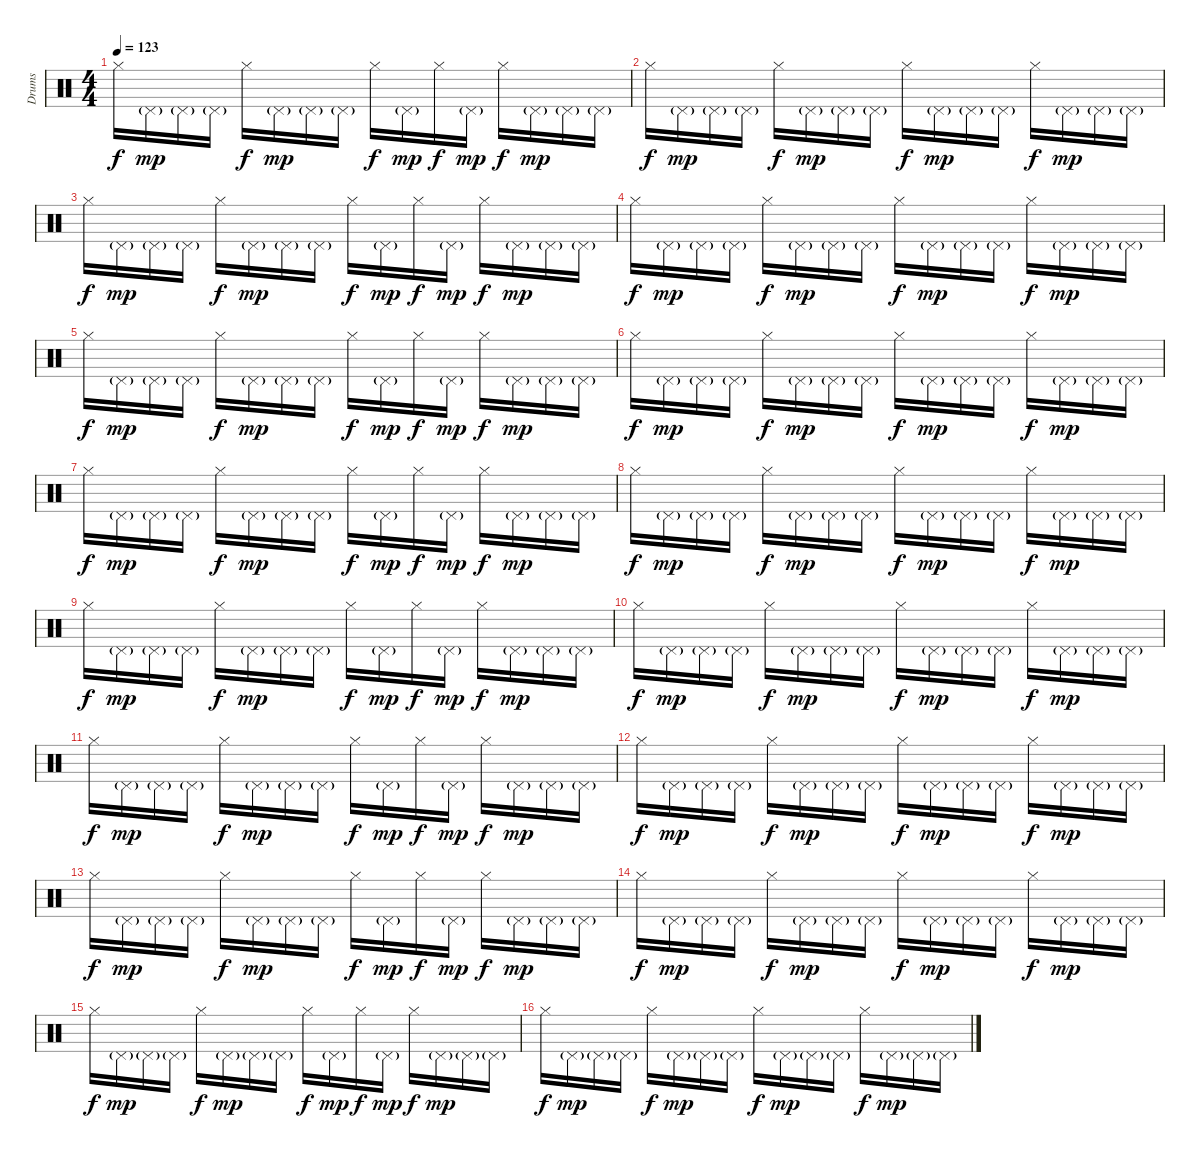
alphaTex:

\track ("Drums" "Drums") {instrument percussion}
\staff {score}
\articulation defaults
\ts (4 4)
\tempo 123
\clef neutral
\ks c "Hi-Hat (closed)".16{dy f volume 8} "Pedal Hi-Hat (hit)"{g}.16{dy mp} "Pedal Hi-Hat (hit)"{g}.16 "Pedal Hi-Hat (hit)"{g}.16 "Hi-Hat (closed)".16{dy f} "Pedal Hi-Hat (hit)"{g}.16{dy mp} "Pedal Hi-Hat (hit)"{g}.16 "Pedal Hi-Hat (hit)"{g}.16 "Hi-Hat (closed)".16{dy f} "Pedal Hi-Hat (hit)"{g}.16{dy mp} "Hi-Hat (closed)".16{dy f} "Pedal Hi-Hat (hit)"{g}.16{dy mp} "Hi-Hat (closed)".16{dy f} "Pedal Hi-Hat (hit)"{g}.16{dy mp} "Pedal Hi-Hat (hit)"{g}.16 "Pedal Hi-Hat (hit)"{g}.16
|
"Hi-Hat (closed)".16{dy f} "Pedal Hi-Hat (hit)"{g}.16{dy mp} "Pedal Hi-Hat (hit)"{g}.16 "Pedal Hi-Hat (hit)"{g}.16 "Hi-Hat (closed)".16{dy f} "Pedal Hi-Hat (hit)"{g}.16{dy mp} "Pedal Hi-Hat (hit)"{g}.16 "Pedal Hi-Hat (hit)"{g}.16 "Hi-Hat (closed)".16{dy f} "Pedal Hi-Hat (hit)"{g}.16{dy mp} "Pedal Hi-Hat (hit)"{g}.16 "Pedal Hi-Hat (hit)"{g}.16 "Hi-Hat (closed)".16{dy f} "Pedal Hi-Hat (hit)"{g}.16{dy mp} "Pedal Hi-Hat (hit)"{g}.16 "Pedal Hi-Hat (hit)"{g}.16 |
"Hi-Hat (closed)".16{dy f} "Pedal Hi-Hat (hit)"{g}.16{dy mp} "Pedal Hi-Hat (hit)"{g}.16 "Pedal Hi-Hat (hit)"{g}.16 "Hi-Hat (closed)".16{dy f} "Pedal Hi-Hat (hit)"{g}.16{dy mp} "Pedal Hi-Hat (hit)"{g}.16 "Pedal Hi-Hat (hit)"{g}.16 "Hi-Hat (closed)".16{dy f} "Pedal Hi-Hat (hit)"{g}.16{dy mp} "Hi-Hat (closed)".16{dy f} "Pedal Hi-Hat (hit)"{g}.16{dy mp} "Hi-Hat (closed)".16{dy f} "Pedal Hi-Hat (hit)"{g}.16{dy mp} "Pedal Hi-Hat (hit)"{g}.16 "Pedal Hi-Hat (hit)"{g}.16 |
"Hi-Hat (closed)".16{dy f} "Pedal Hi-Hat (hit)"{g}.16{dy mp} "Pedal Hi-Hat (hit)"{g}.16 "Pedal Hi-Hat (hit)"{g}.16 "Hi-Hat (closed)".16{dy f} "Pedal Hi-Hat (hit)"{g}.16{dy mp} "Pedal Hi-Hat (hit)"{g}.16 "Pedal Hi-Hat (hit)"{g}.16 "Hi-Hat (closed)".16{dy f} "Pedal Hi-Hat (hit)"{g}.16{dy mp} "Pedal Hi-Hat (hit)"{g}.16 "Pedal Hi-Hat (hit)"{g}.16 "Hi-Hat (closed)".16{dy f} "Pedal Hi-Hat (hit)"{g}.16{dy mp} "Pedal Hi-Hat (hit)"{g}.16 "Pedal Hi-Hat (hit)"{g}.16 |
"Hi-Hat (closed)".16{dy f} "Pedal Hi-Hat (hit)"{g}.16{dy mp} "Pedal Hi-Hat (hit)"{g}.16 "Pedal Hi-Hat (hit)"{g}.16 "Hi-Hat (closed)".16{dy f} "Pedal Hi-Hat (hit)"{g}.16{dy mp} "Pedal Hi-Hat (hit)"{g}.16 "Pedal Hi-Hat (hit)"{g}.16 "Hi-Hat (closed)".16{dy f} "Pedal Hi-Hat (hit)"{g}.16{dy mp} "Hi-Hat (closed)".16{dy f} "Pedal Hi-Hat (hit)"{g}.16{dy mp} "Hi-Hat (closed)".16{dy f} "Pedal Hi-Hat (hit)"{g}.16{dy mp} "Pedal Hi-Hat (hit)"{g}.16 "Pedal Hi-Hat (hit)"{g}.16 |
"Hi-Hat (closed)".16{dy f} "Pedal Hi-Hat (hit)"{g}.16{dy mp} "Pedal Hi-Hat (hit)"{g}.16 "Pedal Hi-Hat (hit)"{g}.16 "Hi-Hat (closed)".16{dy f} "Pedal Hi-Hat (hit)"{g}.16{dy mp} "Pedal Hi-Hat (hit)"{g}.16 "Pedal Hi-Hat (hit)"{g}.16 "Hi-Hat (closed)".16{dy f} "Pedal Hi-Hat (hit)"{g}.16{dy mp} "Pedal Hi-Hat (hit)"{g}.16 "Pedal Hi-Hat (hit)"{g}.16 "Hi-Hat (closed)".16{dy f} "Pedal Hi-Hat (hit)"{g}.16{dy mp} "Pedal Hi-Hat (hit)"{g}.16 "Pedal Hi-Hat (hit)"{g}.16 |
"Hi-Hat (closed)".16{dy f} "Pedal Hi-Hat (hit)"{g}.16{dy mp} "Pedal Hi-Hat (hit)"{g}.16 "Pedal Hi-Hat (hit)"{g}.16 "Hi-Hat (closed)".16{dy f} "Pedal Hi-Hat (hit)"{g}.16{dy mp} "Pedal Hi-Hat (hit)"{g}.16 "Pedal Hi-Hat (hit)"{g}.16 "Hi-Hat (closed)".16{dy f} "Pedal Hi-Hat (hit)"{g}.16{dy mp} "Hi-Hat (closed)".16{dy f} "Pedal Hi-Hat (hit)"{g}.16{dy mp} "Hi-Hat (closed)".16{dy f} "Pedal Hi-Hat (hit)"{g}.16{dy mp} "Pedal Hi-Hat (hit)"{g}.16 "Pedal Hi-Hat (hit)"{g}.16 |
"Hi-Hat (closed)".16{dy f} "Pedal Hi-Hat (hit)"{g}.16{dy mp} "Pedal Hi-Hat (hit)"{g}.16 "Pedal Hi-Hat (hit)"{g}.16 "Hi-Hat (closed)".16{dy f} "Pedal Hi-Hat (hit)"{g}.16{dy mp} "Pedal Hi-Hat (hit)"{g}.16 "Pedal Hi-Hat (hit)"{g}.16 "Hi-Hat (closed)".16{dy f} "Pedal Hi-Hat (hit)"{g}.16{dy mp} "Pedal Hi-Hat (hit)"{g}.16 "Pedal Hi-Hat (hit)"{g}.16 "Hi-Hat (closed)".16{dy f} "Pedal Hi-Hat (hit)"{g}.16{dy mp} "Pedal Hi-Hat (hit)"{g}.16 "Pedal Hi-Hat (hit)"{g}.16 |
"Hi-Hat (closed)".16{dy f} "Pedal Hi-Hat (hit)"{g}.16{dy mp} "Pedal Hi-Hat (hit)"{g}.16 "Pedal Hi-Hat (hit)"{g}.16 "Hi-Hat (closed)".16{dy f} "Pedal Hi-Hat (hit)"{g}.16{dy mp} "Pedal Hi-Hat (hit)"{g}.16 "Pedal Hi-Hat (hit)"{g}.16 "Hi-Hat (closed)".16{dy f} "Pedal Hi-Hat (hit)"{g}.16{dy mp} "Hi-Hat (closed)".16{dy f} "Pedal Hi-Hat (hit)"{g}.16{dy mp} "Hi-Hat (closed)".16{dy f} "Pedal Hi-Hat (hit)"{g}.16{dy mp} "Pedal Hi-Hat (hit)"{g}.16 "Pedal Hi-Hat (hit)"{g}.16 |
"Hi-Hat (closed)".16{dy f} "Pedal Hi-Hat (hit)"{g}.16{dy mp} "Pedal Hi-Hat (hit)"{g}.16 "Pedal Hi-Hat (hit)"{g}.16 "Hi-Hat (closed)".16{dy f} "Pedal Hi-Hat (hit)"{g}.16{dy mp} "Pedal Hi-Hat (hit)"{g}.16 "Pedal Hi-Hat (hit)"{g}.16 "Hi-Hat (closed)".16{dy f} "Pedal Hi-Hat (hit)"{g}.16{dy mp} "Pedal Hi-Hat (hit)"{g}.16 "Pedal Hi-Hat (hit)"{g}.16 "Hi-Hat (closed)".16{dy f} "Pedal Hi-Hat (hit)"{g}.16{dy mp} "Pedal Hi-Hat (hit)"{g}.16 "Pedal Hi-Hat (hit)"{g}.16 |
"Hi-Hat (closed)".16{dy f} "Pedal Hi-Hat (hit)"{g}.16{dy mp} "Pedal Hi-Hat (hit)"{g}.16 "Pedal Hi-Hat (hit)"{g}.16 "Hi-Hat (closed)".16{dy f} "Pedal Hi-Hat (hit)"{g}.16{dy mp} "Pedal Hi-Hat (hit)"{g}.16 "Pedal Hi-Hat (hit)"{g}.16 "Hi-Hat (closed)".16{dy f} "Pedal Hi-Hat (hit)"{g}.16{dy mp} "Hi-Hat (closed)".16{dy f} "Pedal Hi-Hat (hit)"{g}.16{dy mp} "Hi-Hat (closed)".16{dy f} "Pedal Hi-Hat (hit)"{g}.16{dy mp} "Pedal Hi-Hat (hit)"{g}.16 "Pedal Hi-Hat (hit)"{g}.16 |
"Hi-Hat (closed)".16{dy f} "Pedal Hi-Hat (hit)"{g}.16{dy mp} "Pedal Hi-Hat (hit)"{g}.16 "Pedal Hi-Hat (hit)"{g}.16 "Hi-Hat (closed)".16{dy f} "Pedal Hi-Hat (hit)"{g}.16{dy mp} "Pedal Hi-Hat (hit)"{g}.16 "Pedal Hi-Hat (hit)"{g}.16 "Hi-Hat (closed)".16{dy f} "Pedal Hi-Hat (hit)"{g}.16{dy mp} "Pedal Hi-Hat (hit)"{g}.16 "Pedal Hi-Hat (hit)"{g}.16 "Hi-Hat (closed)".16{dy f} "Pedal Hi-Hat (hit)"{g}.16{dy mp} "Pedal Hi-Hat (hit)"{g}.16 "Pedal Hi-Hat (hit)"{g}.16 |
"Hi-Hat (closed)".16{dy f} "Pedal Hi-Hat (hit)"{g}.16{dy mp} "Pedal Hi-Hat (hit)"{g}.16 "Pedal Hi-Hat (hit)"{g}.16 "Hi-Hat (closed)".16{dy f} "Pedal Hi-Hat (hit)"{g}.16{dy mp} "Pedal Hi-Hat (hit)"{g}.16 "Pedal Hi-Hat (hit)"{g}.16 "Hi-Hat (closed)".16{dy f} "Pedal Hi-Hat (hit)"{g}.16{dy mp} "Hi-Hat (closed)".16{dy f} "Pedal Hi-Hat (hit)"{g}.16{dy mp} "Hi-Hat (closed)".16{dy f} "Pedal Hi-Hat (hit)"{g}.16{dy mp} "Pedal Hi-Hat (hit)"{g}.16 "Pedal Hi-Hat (hit)"{g}.16 |
"Hi-Hat (closed)".16{dy f} "Pedal Hi-Hat (hit)"{g}.16{dy mp} "Pedal Hi-Hat (hit)"{g}.16 "Pedal Hi-Hat (hit)"{g}.16 "Hi-Hat (closed)".16{dy f} "Pedal Hi-Hat (hit)"{g}.16{dy mp} "Pedal Hi-Hat (hit)"{g}.16 "Pedal Hi-Hat (hit)"{g}.16 "Hi-Hat (closed)".16{dy f} "Pedal Hi-Hat (hit)"{g}.16{dy mp} "Pedal Hi-Hat (hit)"{g}.16 "Pedal Hi-Hat (hit)"{g}.16 "Hi-Hat (closed)".16{dy f} "Pedal Hi-Hat (hit)"{g}.16{dy mp} "Pedal Hi-Hat (hit)"{g}.16 "Pedal Hi-Hat (hit)"{g}.16 |
"Hi-Hat (closed)".16{dy f} "Pedal Hi-Hat (hit)"{g}.16{dy mp} "Pedal Hi-Hat (hit)"{g}.16 "Pedal Hi-Hat (hit)"{g}.16 "Hi-Hat (closed)".16{dy f} "Pedal Hi-Hat (hit)"{g}.16{dy mp} "Pedal Hi-Hat (hit)"{g}.16 "Pedal Hi-Hat (hit)"{g}.16 "Hi-Hat (closed)".16{dy f} "Pedal Hi-Hat (hit)"{g}.16{dy mp} "Hi-Hat (closed)".16{dy f} "Pedal Hi-Hat (hit)"{g}.16{dy mp} "Hi-Hat (closed)".16{dy f} "Pedal Hi-Hat (hit)"{g}.16{dy mp} "Pedal Hi-Hat (hit)"{g}.16 "Pedal Hi-Hat (hit)"{g}.16 |
"Hi-Hat (closed)".16{dy f} "Pedal Hi-Hat (hit)"{g}.16{dy mp} "Pedal Hi-Hat (hit)"{g}.16 "Pedal Hi-Hat (hit)"{g}.16 "Hi-Hat (closed)".16{dy f} "Pedal Hi-Hat (hit)"{g}.16{dy mp} "Pedal Hi-Hat (hit)"{g}.16 "Pedal Hi-Hat (hit)"{g}.16 "Hi-Hat (closed)".16{dy f} "Pedal Hi-Hat (hit)"{g}.16{dy mp} "Pedal Hi-Hat (hit)"{g}.16 "Pedal Hi-Hat (hit)"{g}.16 "Hi-Hat (closed)".16{dy f} "Pedal Hi-Hat (hit)"{g}.16{dy mp} "Pedal Hi-Hat (hit)"{g}.16 "Pedal Hi-Hat (hit)"{g}.16
